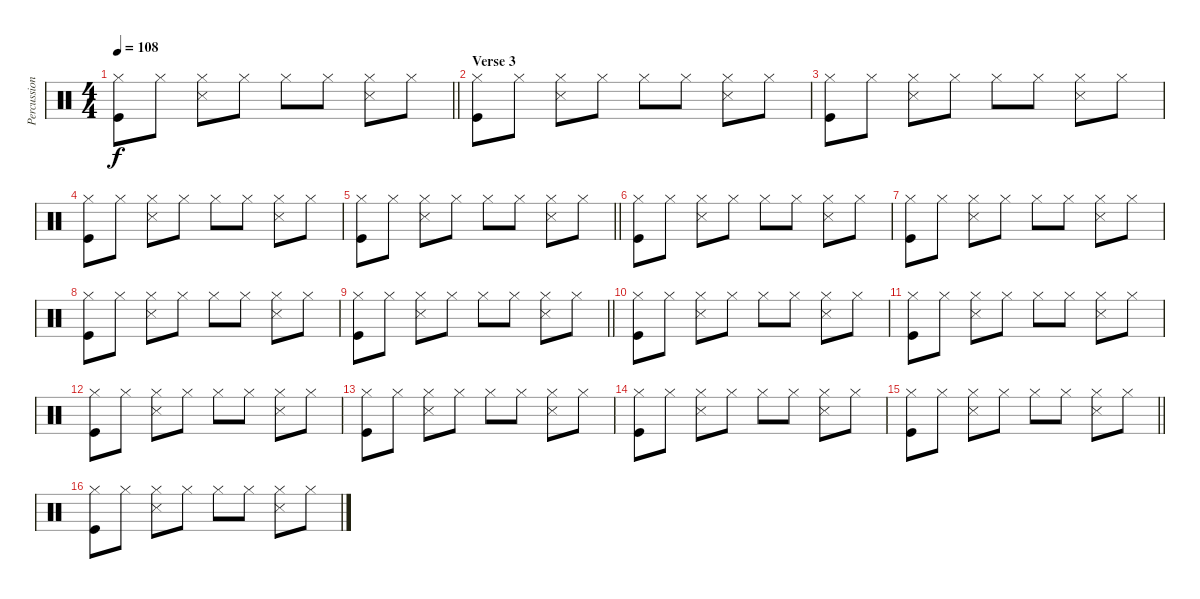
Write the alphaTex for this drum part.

\track ("Percussion" "Percussion") {instrument percussion}
\staff {score}
\articulation defaults
\ts (4 4)
\tempo 108
\clef neutral
\barLineRight lightlight
\ks c
("Hi-Hat (closed)" "Kick (hit)").8{dy f} "Hi-Hat (closed)".8 ("Hi-Hat (closed)" "Snare (side stick) 3").8 "Hi-Hat (closed)".8 "Hi-Hat (closed)".8 "Hi-Hat (closed)".8 ("Hi-Hat (closed)" "Snare (side stick) 3").8 "Hi-Hat (closed)".8 |
\section ("" "Verse 3")
("Hi-Hat (closed)" "Kick (hit)").8 "Hi-Hat (closed)".8 ("Hi-Hat (closed)" "Snare (side stick) 3").8 "Hi-Hat (closed)".8 "Hi-Hat (closed)".8 "Hi-Hat (closed)".8 ("Hi-Hat (closed)" "Snare (side stick) 3").8 "Hi-Hat (closed)".8 |
("Hi-Hat (closed)" "Kick (hit)").8 "Hi-Hat (closed)".8 ("Hi-Hat (closed)" "Snare (side stick) 3").8 "Hi-Hat (closed)".8 "Hi-Hat (closed)".8 "Hi-Hat (closed)".8 ("Hi-Hat (closed)" "Snare (side stick) 3").8 "Hi-Hat (closed)".8 |
("Hi-Hat (closed)" "Kick (hit)").8 "Hi-Hat (closed)".8 ("Hi-Hat (closed)" "Snare (side stick) 3").8 "Hi-Hat (closed)".8 "Hi-Hat (closed)".8 "Hi-Hat (closed)".8 ("Hi-Hat (closed)" "Snare (side stick) 3").8 "Hi-Hat (closed)".8 |
\barLineRight lightlight
("Hi-Hat (closed)" "Kick (hit)").8 "Hi-Hat (closed)".8 ("Hi-Hat (closed)" "Snare (side stick) 3").8 "Hi-Hat (closed)".8 "Hi-Hat (closed)".8 "Hi-Hat (closed)".8 ("Hi-Hat (closed)" "Snare (side stick) 3").8 "Hi-Hat (closed)".8 |
("Hi-Hat (closed)" "Kick (hit)").8 "Hi-Hat (closed)".8 ("Hi-Hat (closed)" "Snare (side stick) 3").8 "Hi-Hat (closed)".8 "Hi-Hat (closed)".8 "Hi-Hat (closed)".8 ("Hi-Hat (closed)" "Snare (side stick) 3").8 "Hi-Hat (closed)".8 |
("Hi-Hat (closed)" "Kick (hit)").8 "Hi-Hat (closed)".8 ("Hi-Hat (closed)" "Snare (side stick) 3").8 "Hi-Hat (closed)".8 "Hi-Hat (closed)".8 "Hi-Hat (closed)".8 ("Hi-Hat (closed)" "Snare (side stick) 3").8 "Hi-Hat (closed)".8 |
("Hi-Hat (closed)" "Kick (hit)").8 "Hi-Hat (closed)".8 ("Hi-Hat (closed)" "Snare (side stick) 3").8 "Hi-Hat (closed)".8 "Hi-Hat (closed)".8 "Hi-Hat (closed)".8 ("Hi-Hat (closed)" "Snare (side stick) 3").8 "Hi-Hat (closed)".8 |
\barLineRight lightlight
("Hi-Hat (closed)" "Kick (hit)").8 "Hi-Hat (closed)".8 ("Hi-Hat (closed)" "Snare (side stick) 3").8 "Hi-Hat (closed)".8 "Hi-Hat (closed)".8 "Hi-Hat (closed)".8 ("Hi-Hat (closed)" "Snare (side stick) 3").8 "Hi-Hat (closed)".8 |
("Hi-Hat (closed)" "Kick (hit)").8 "Hi-Hat (closed)".8 ("Hi-Hat (closed)" "Snare (side stick) 3").8 "Hi-Hat (closed)".8 "Hi-Hat (closed)".8 "Hi-Hat (closed)".8 ("Hi-Hat (closed)" "Snare (side stick) 3").8 "Hi-Hat (closed)".8 |
("Hi-Hat (closed)" "Kick (hit)").8 "Hi-Hat (closed)".8 ("Hi-Hat (closed)" "Snare (side stick) 3").8 "Hi-Hat (closed)".8 "Hi-Hat (closed)".8 "Hi-Hat (closed)".8 ("Hi-Hat (closed)" "Snare (side stick) 3").8 "Hi-Hat (closed)".8 |
("Hi-Hat (closed)" "Kick (hit)").8 "Hi-Hat (closed)".8 ("Hi-Hat (closed)" "Snare (side stick) 3").8 "Hi-Hat (closed)".8 "Hi-Hat (closed)".8 "Hi-Hat (closed)".8 ("Hi-Hat (closed)" "Snare (side stick) 3").8 "Hi-Hat (closed)".8 |
("Hi-Hat (closed)" "Kick (hit)").8 "Hi-Hat (closed)".8 ("Hi-Hat (closed)" "Snare (side stick) 3").8 "Hi-Hat (closed)".8 "Hi-Hat (closed)".8 "Hi-Hat (closed)".8 ("Hi-Hat (closed)" "Snare (side stick) 3").8 "Hi-Hat (closed)".8 |
("Hi-Hat (closed)" "Kick (hit)").8 "Hi-Hat (closed)".8 ("Hi-Hat (closed)" "Snare (side stick) 3").8 "Hi-Hat (closed)".8 "Hi-Hat (closed)".8 "Hi-Hat (closed)".8 ("Hi-Hat (closed)" "Snare (side stick) 3").8 "Hi-Hat (closed)".8 |
\barLineRight lightlight
("Hi-Hat (closed)" "Kick (hit)").8 "Hi-Hat (closed)".8 ("Hi-Hat (closed)" "Snare (side stick) 3").8 "Hi-Hat (closed)".8 "Hi-Hat (closed)".8 "Hi-Hat (closed)".8 ("Hi-Hat (closed)" "Snare (side stick) 3").8 "Hi-Hat (closed)".8 |
("Hi-Hat (closed)" "Kick (hit)").8 "Hi-Hat (closed)".8 ("Hi-Hat (closed)" "Snare (side stick) 3").8 "Hi-Hat (closed)".8 "Hi-Hat (closed)".8 "Hi-Hat (closed)".8 ("Hi-Hat (closed)" "Snare (side stick) 3").8 "Hi-Hat (closed)".8
